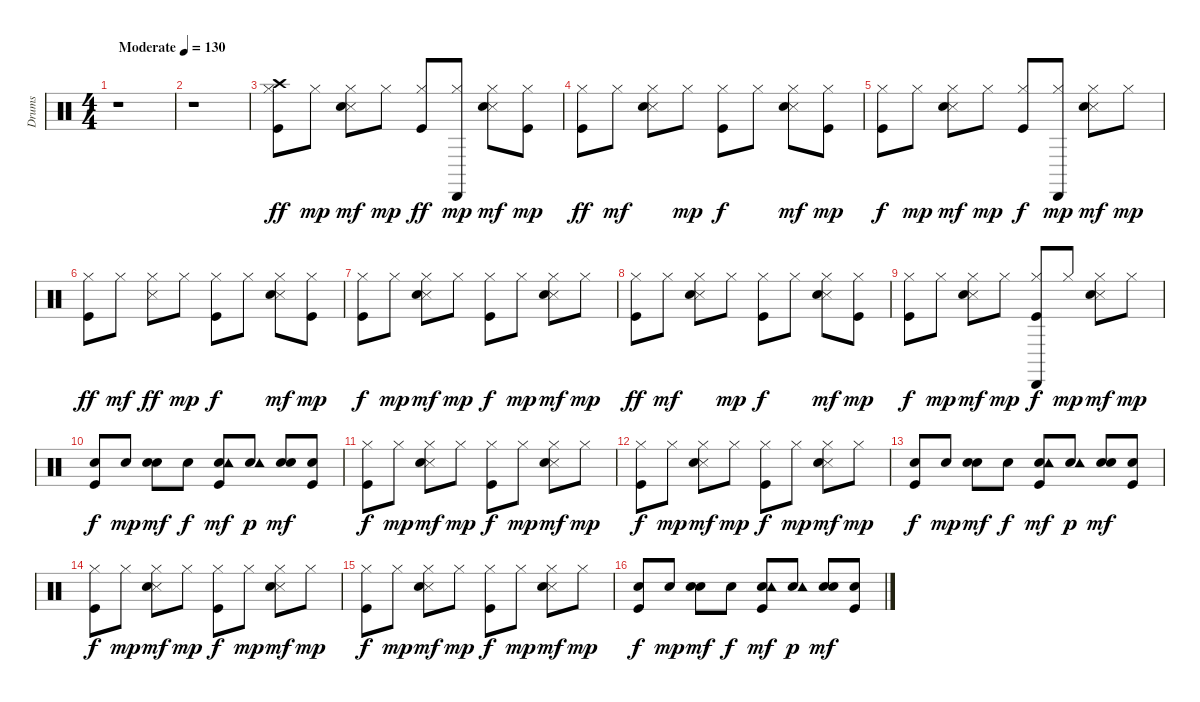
\track ("Drums" "Drums") {instrument percussion}
\staff {score}
\articulation defaults
\ts (4 4)
\tempo (130 "Moderate")
\clef neutral
\ks c
r.1{dy ff} |
r.1 |
("Kick (hit)" "Hi-Hat (closed)" "Crash high (hit)").8 "Hi-Hat (closed)".8{dy mp} ("Hi-Hat (closed)" "Snare (side stick) 3" "Hand Clap (hit)").8{dy mf} "Hi-Hat (closed)".8{dy mp} ("Kick (hit)" "Hi-Hat (closed)").8{dy ff} ("Hi-Hat (closed)" "Cabasa (hit)").8{dy mp} ("Hi-Hat (closed)" "Snare (side stick) 3" "Hand Clap (hit)").8{dy mf} ("Kick (hit)" "Hi-Hat (closed)").8{dy mp} |
("Kick (hit)" "Hi-Hat (closed)").8{dy ff} "Hi-Hat (closed)".8{dy mf} ("Hi-Hat (closed)" "Snare (side stick) 3" "Hand Clap (hit)").8 "Hi-Hat (closed)".8{dy mp} ("Kick (hit)" "Hi-Hat (closed)").8{dy f} "Hi-Hat (closed)".8 ("Hi-Hat (closed)" "Snare (side stick) 3" "Hand Clap (hit)").8{dy mf} ("Kick (hit)" "Hi-Hat (closed)").8{dy mp} |
("Kick (hit)" "Hi-Hat (closed)").8{dy f} "Hi-Hat (closed)".8{dy mp} ("Hi-Hat (closed)" "Snare (side stick) 3" "Hand Clap (hit)").8{dy mf} "Hi-Hat (closed)".8{dy mp} ("Kick (hit)" "Hi-Hat (closed)").8{dy f} ("Hi-Hat (closed)" "Cabasa (hit)").8{dy mp} ("Hi-Hat (closed)" "Snare (side stick) 3" "Hand Clap (hit)").8{dy mf} "Hi-Hat (closed)".8{dy mp} |
("Kick (hit)" "Hi-Hat (closed)").8{dy ff} "Hi-Hat (closed)".8{dy mf} ("Hi-Hat (closed)" "Snare (side stick) 3").8{dy ff} "Hi-Hat (closed)".8{dy mp} ("Kick (hit)" "Hi-Hat (closed)").8{dy f} "Hi-Hat (closed)".8 ("Hi-Hat (closed)" "Snare (side stick) 3" "Hand Clap (hit)").8{dy mf} ("Kick (hit)" "Hi-Hat (closed)").8{dy mp} |
("Kick (hit)" "Hi-Hat (closed)").8{dy f} "Hi-Hat (closed)".8{dy mp} ("Hi-Hat (closed)" "Snare (side stick) 3" "Hand Clap (hit)").8{dy mf} "Hi-Hat (closed)".8{dy mp} ("Kick (hit)" "Hi-Hat (closed)").8{dy f} "Hi-Hat (closed)".8{dy mp} ("Hi-Hat (closed)" "Snare (side stick) 3" "Hand Clap (hit)").8{dy mf} "Hi-Hat (closed)".8{dy mp} |
("Kick (hit)" "Hi-Hat (closed)").8{dy ff} "Hi-Hat (closed)".8{dy mf} ("Hi-Hat (closed)" "Snare (side stick) 3" "Hand Clap (hit)").8 "Hi-Hat (closed)".8{dy mp} ("Kick (hit)" "Hi-Hat (closed)").8{dy f} "Hi-Hat (closed)".8 ("Hi-Hat (closed)" "Snare (side stick) 3" "Hand Clap (hit)").8{dy mf} ("Kick (hit)" "Hi-Hat (closed)").8{dy mp} |
("Kick (hit)" "Hi-Hat (closed)").8{dy f} "Hi-Hat (closed)".8{dy mp} ("Hi-Hat (closed)" "Snare (side stick) 3" "Hand Clap (hit)").8{dy mf} "Hi-Hat (closed)".8{dy mp} ("Kick (hit)" "Hi-Hat (closed)" "Cabasa (hit)").8{dy f} "Hi-Hat (closed)".8{dy mp} ("Hi-Hat (closed)" "Snare (side stick) 3" "Hand Clap (hit)").8{dy mf} "Hi-Hat (closed)".8{dy mp} |
("Kick (hit)" "Snare (hit) 2").8{dy f} "Snare (hit) 2".8{dy mp} ("Snare (hit) 2" "Hand Clap (hit)").8{dy mf} "Snare (hit) 2".8{dy f} ("Kick (hit)" "Snare (hit) 2" "Tambourine (hit)").8{dy mf} ("Snare (hit) 2" "Tambourine (hit)").8{dy p} ("Snare (hit) 2" "Hand Clap (hit)").8{dy mf} ("Kick (hit)" "Snare (hit) 2").8 |
("Kick (hit)" "Hi-Hat (closed)").8{dy f} "Hi-Hat (closed)".8{dy mp} ("Hi-Hat (closed)" "Snare (side stick) 3" "Hand Clap (hit)").8{dy mf} "Hi-Hat (closed)".8{dy mp} ("Kick (hit)" "Hi-Hat (closed)").8{dy f} "Hi-Hat (closed)".8{dy mp} ("Hi-Hat (closed)" "Snare (side stick) 3" "Hand Clap (hit)").8{dy mf} "Hi-Hat (closed)".8{dy mp} |
("Kick (hit)" "Hi-Hat (closed)").8{dy f} "Hi-Hat (closed)".8{dy mp} ("Hi-Hat (closed)" "Snare (side stick) 3" "Hand Clap (hit)").8{dy mf} "Hi-Hat (closed)".8{dy mp} ("Kick (hit)" "Hi-Hat (closed)").8{dy f} "Hi-Hat (closed)".8{dy mp} ("Hi-Hat (closed)" "Snare (side stick) 3" "Hand Clap (hit)").8{dy mf} "Hi-Hat (closed)".8{dy mp} |
("Kick (hit)" "Snare (hit) 2").8{dy f} "Snare (hit) 2".8{dy mp} ("Snare (hit) 2" "Hand Clap (hit)").8{dy mf} "Snare (hit) 2".8{dy f} ("Kick (hit)" "Snare (hit) 2" "Tambourine (hit)").8{dy mf} ("Snare (hit) 2" "Tambourine (hit)").8{dy p} ("Snare (hit) 2" "Hand Clap (hit)").8{dy mf} ("Kick (hit)" "Snare (hit) 2").8 |
("Kick (hit)" "Hi-Hat (closed)").8{dy f} "Hi-Hat (closed)".8{dy mp} ("Hi-Hat (closed)" "Snare (side stick) 3" "Hand Clap (hit)").8{dy mf} "Hi-Hat (closed)".8{dy mp} ("Kick (hit)" "Hi-Hat (closed)").8{dy f} "Hi-Hat (closed)".8{dy mp} ("Hi-Hat (closed)" "Snare (side stick) 3" "Hand Clap (hit)").8{dy mf} "Hi-Hat (closed)".8{dy mp} |
("Kick (hit)" "Hi-Hat (closed)").8{dy f} "Hi-Hat (closed)".8{dy mp} ("Hi-Hat (closed)" "Snare (side stick) 3" "Hand Clap (hit)").8{dy mf} "Hi-Hat (closed)".8{dy mp} ("Kick (hit)" "Hi-Hat (closed)").8{dy f} "Hi-Hat (closed)".8{dy mp} ("Hi-Hat (closed)" "Snare (side stick) 3" "Hand Clap (hit)").8{dy mf} "Hi-Hat (closed)".8{dy mp} |
("Kick (hit)" "Snare (hit) 2").8{dy f} "Snare (hit) 2".8{dy mp} ("Snare (hit) 2" "Hand Clap (hit)").8{dy mf} "Snare (hit) 2".8{dy f} ("Kick (hit)" "Snare (hit) 2" "Tambourine (hit)").8{dy mf} ("Snare (hit) 2" "Tambourine (hit)").8{dy p} ("Snare (hit) 2" "Hand Clap (hit)").8{dy mf} ("Kick (hit)" "Snare (hit) 2").8
